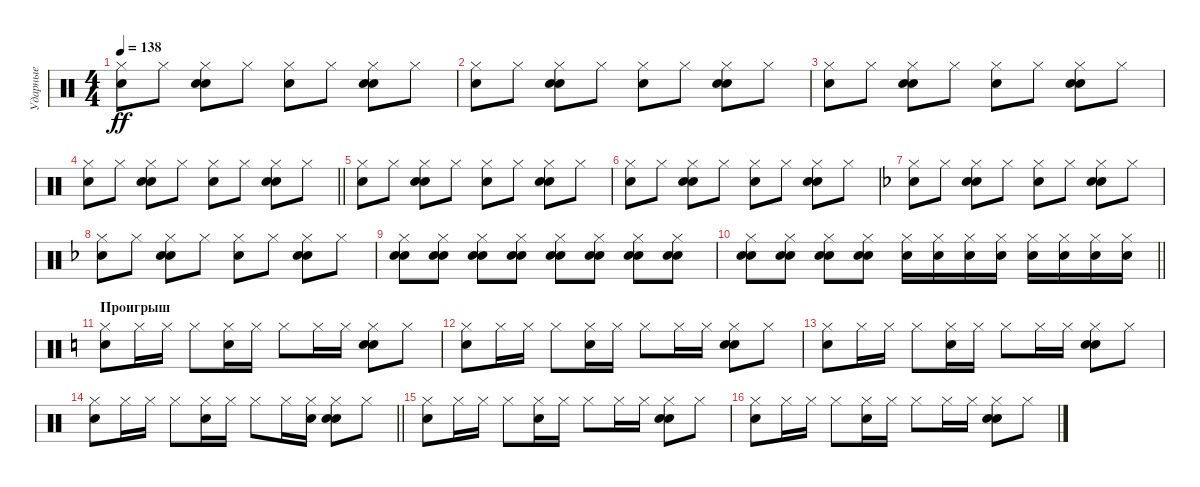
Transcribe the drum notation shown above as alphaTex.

\track ("Ударные" "Ударные") {instrument percussion}
\staff {score}
\articulation defaults
\ts (4 4)
\tempo 138
\clef neutral
\ks c
("Hi-Hat (closed)" "Snare (hit) 2").8{dy ff} "Hi-Hat (closed)".8 ("Hi-Hat (closed)" "Snare (hit) 2" "Electric Snare (hit)").8 "Hi-Hat (closed)".8 ("Hi-Hat (closed)" "Snare (hit) 2").8 "Hi-Hat (closed)".8 ("Hi-Hat (closed)" "Snare (hit) 2" "Electric Snare (hit)").8 "Hi-Hat (closed)".8 |
("Hi-Hat (closed)" "Snare (hit) 2").8 "Hi-Hat (closed)".8 ("Hi-Hat (closed)" "Snare (hit) 2" "Electric Snare (hit)").8 "Hi-Hat (closed)".8 ("Hi-Hat (closed)" "Snare (hit) 2").8 "Hi-Hat (closed)".8 ("Hi-Hat (closed)" "Snare (hit) 2" "Electric Snare (hit)").8 "Hi-Hat (closed)".8 |
("Hi-Hat (closed)" "Snare (hit) 2").8 "Hi-Hat (closed)".8 ("Hi-Hat (closed)" "Snare (hit) 2" "Electric Snare (hit)").8 "Hi-Hat (closed)".8 ("Hi-Hat (closed)" "Snare (hit) 2").8 "Hi-Hat (closed)".8 ("Hi-Hat (closed)" "Snare (hit) 2" "Electric Snare (hit)").8 "Hi-Hat (closed)".8 |
\barLineRight lightlight
("Hi-Hat (closed)" "Snare (hit) 2").8 "Hi-Hat (closed)".8 ("Hi-Hat (closed)" "Snare (hit) 2" "Electric Snare (hit)").8 "Hi-Hat (closed)".8 ("Hi-Hat (closed)" "Snare (hit) 2").8 "Hi-Hat (closed)".8 ("Hi-Hat (closed)" "Snare (hit) 2" "Electric Snare (hit)").8 "Hi-Hat (closed)".8 |
("Hi-Hat (closed)" "Snare (hit) 2").8 "Hi-Hat (closed)".8 ("Hi-Hat (closed)" "Snare (hit) 2" "Electric Snare (hit)").8 "Hi-Hat (closed)".8 ("Hi-Hat (closed)" "Snare (hit) 2").8 "Hi-Hat (closed)".8 ("Hi-Hat (closed)" "Snare (hit) 2" "Electric Snare (hit)").8 "Hi-Hat (closed)".8 |
("Hi-Hat (closed)" "Snare (hit) 2").8 "Hi-Hat (closed)".8 ("Hi-Hat (closed)" "Snare (hit) 2" "Electric Snare (hit)").8 "Hi-Hat (closed)".8 ("Hi-Hat (closed)" "Snare (hit) 2").8 "Hi-Hat (closed)".8 ("Hi-Hat (closed)" "Snare (hit) 2" "Electric Snare (hit)").8 "Hi-Hat (closed)".8 |
\ks f
("Hi-Hat (closed)" "Snare (hit) 2").8 "Hi-Hat (closed)".8 ("Hi-Hat (closed)" "Snare (hit) 2" "Electric Snare (hit)").8 "Hi-Hat (closed)".8 ("Hi-Hat (closed)" "Snare (hit) 2").8 "Hi-Hat (closed)".8 ("Hi-Hat (closed)" "Snare (hit) 2" "Electric Snare (hit)").8 "Hi-Hat (closed)".8 |
("Hi-Hat (closed)" "Snare (hit) 2").8 "Hi-Hat (closed)".8 ("Hi-Hat (closed)" "Snare (hit) 2" "Electric Snare (hit)").8 "Hi-Hat (closed)".8 ("Hi-Hat (closed)" "Snare (hit) 2").8 "Hi-Hat (closed)".8 ("Hi-Hat (closed)" "Snare (hit) 2" "Electric Snare (hit)").8 "Hi-Hat (closed)".8 |
("Hi-Hat (closed)" "Snare (hit) 2" "Electric Snare (hit)").8 ("Hi-Hat (closed)" "Snare (hit) 2" "Electric Snare (hit)").8 ("Hi-Hat (closed)" "Snare (hit) 2" "Electric Snare (hit)").8 ("Hi-Hat (closed)" "Snare (hit) 2" "Electric Snare (hit)").8 ("Hi-Hat (closed)" "Snare (hit) 2" "Electric Snare (hit)").8 ("Hi-Hat (closed)" "Snare (hit) 2" "Electric Snare (hit)").8 ("Hi-Hat (closed)" "Snare (hit) 2" "Electric Snare (hit)").8 ("Hi-Hat (closed)" "Snare (hit) 2" "Electric Snare (hit)").8 |
\barLineRight lightlight
("Hi-Hat (closed)" "Snare (hit) 2" "Electric Snare (hit)").8 ("Hi-Hat (closed)" "Snare (hit) 2" "Electric Snare (hit)").8 ("Hi-Hat (closed)" "Snare (hit) 2" "Electric Snare (hit)").8 ("Hi-Hat (closed)" "Snare (hit) 2" "Electric Snare (hit)").8 ("Hi-Hat (closed)" "Snare (hit) 2").16 ("Hi-Hat (closed)" "Snare (hit) 2").16 ("Hi-Hat (closed)" "Snare (hit) 2").16 ("Hi-Hat (closed)" "Snare (hit) 2").16 ("Hi-Hat (closed)" "Snare (hit) 2").16 ("Hi-Hat (closed)" "Snare (hit) 2").16 ("Hi-Hat (closed)" "Snare (hit) 2").16 ("Hi-Hat (closed)" "Snare (hit) 2").16 |
\section ("" "Проигрыш")
\ks c
("Hi-Hat (closed)" "Snare (hit) 2").8 "Hi-Hat (closed)".16 "Hi-Hat (closed)".16 "Hi-Hat (closed)".8 ("Hi-Hat (closed)" "Snare (hit) 2").16 "Hi-Hat (closed)".16 "Hi-Hat (closed)".8 "Hi-Hat (closed)".16 "Hi-Hat (closed)".16 ("Hi-Hat (closed)" "Snare (hit) 2" "Electric Snare (hit)").8 "Hi-Hat (closed)".8 |
("Hi-Hat (closed)" "Snare (hit) 2").8 "Hi-Hat (closed)".16 "Hi-Hat (closed)".16 "Hi-Hat (closed)".8 ("Hi-Hat (closed)" "Snare (hit) 2").16 "Hi-Hat (closed)".16 "Hi-Hat (closed)".8 "Hi-Hat (closed)".16 "Hi-Hat (closed)".16 ("Hi-Hat (closed)" "Snare (hit) 2" "Electric Snare (hit)").8 "Hi-Hat (closed)".8 |
("Hi-Hat (closed)" "Snare (hit) 2").8 "Hi-Hat (closed)".16 "Hi-Hat (closed)".16 "Hi-Hat (closed)".8 ("Hi-Hat (closed)" "Snare (hit) 2").16 "Hi-Hat (closed)".16 "Hi-Hat (closed)".8 "Hi-Hat (closed)".16 "Hi-Hat (closed)".16 ("Hi-Hat (closed)" "Snare (hit) 2" "Electric Snare (hit)").8 "Hi-Hat (closed)".8 |
\barLineRight lightlight
("Hi-Hat (closed)" "Snare (hit) 2").8 "Hi-Hat (closed)".16 "Hi-Hat (closed)".16 "Hi-Hat (closed)".8 ("Hi-Hat (closed)" "Snare (hit) 2").16 "Hi-Hat (closed)".16 "Hi-Hat (closed)".8 "Hi-Hat (closed)".16 ("Hi-Hat (closed)" "Electric Snare (hit)").16 ("Hi-Hat (closed)" "Snare (hit) 2" "Electric Snare (hit)").8 "Hi-Hat (closed)".8 |
("Hi-Hat (closed)" "Snare (hit) 2").8 "Hi-Hat (closed)".16 "Hi-Hat (closed)".16 "Hi-Hat (closed)".8 ("Hi-Hat (closed)" "Snare (hit) 2").16 "Hi-Hat (closed)".16 "Hi-Hat (closed)".8 "Hi-Hat (closed)".16 "Hi-Hat (closed)".16 ("Hi-Hat (closed)" "Snare (hit) 2" "Electric Snare (hit)").8 "Hi-Hat (closed)".8 |
("Hi-Hat (closed)" "Snare (hit) 2").8 "Hi-Hat (closed)".16 "Hi-Hat (closed)".16 "Hi-Hat (closed)".8 ("Hi-Hat (closed)" "Snare (hit) 2").16 "Hi-Hat (closed)".16 "Hi-Hat (closed)".8 "Hi-Hat (closed)".16 "Hi-Hat (closed)".16 ("Hi-Hat (closed)" "Snare (hit) 2" "Electric Snare (hit)").8 "Hi-Hat (closed)".8
